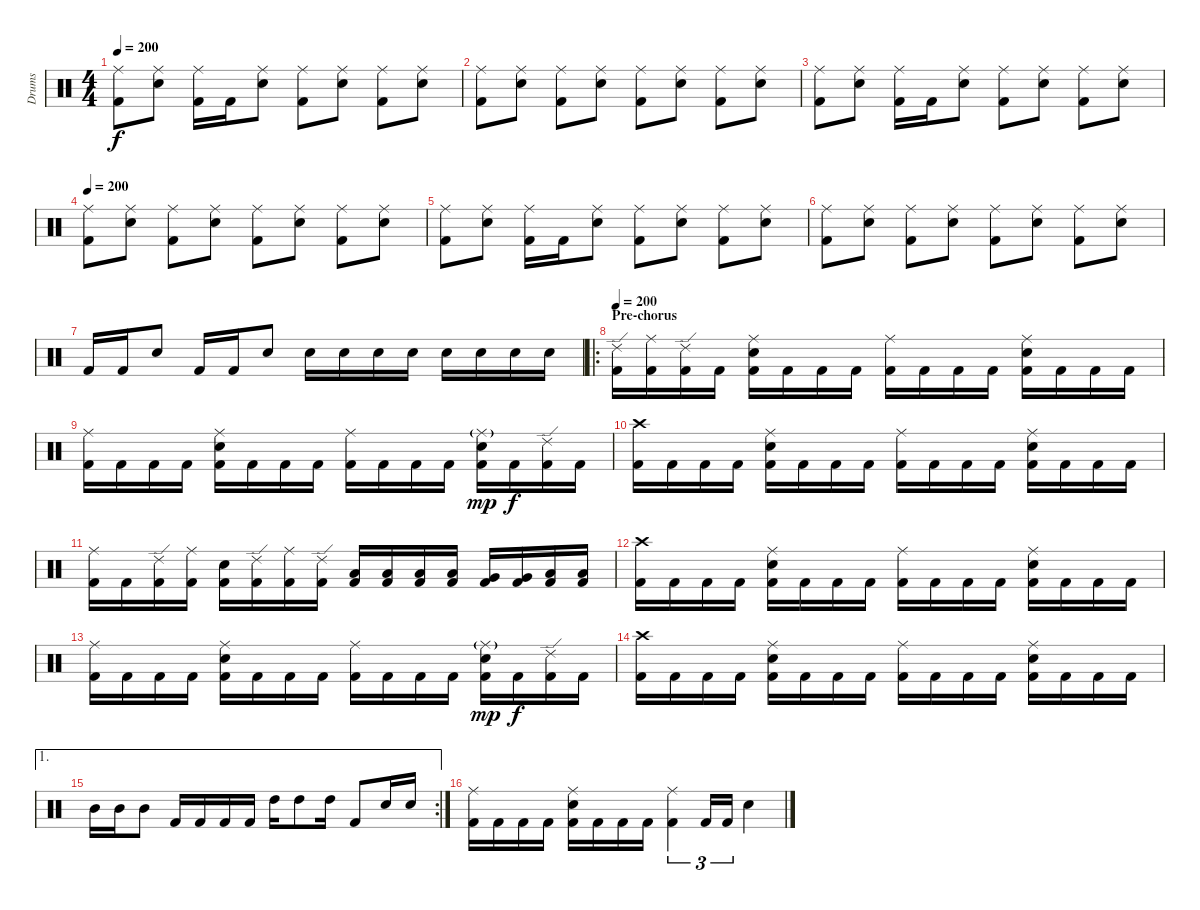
\track ("Drums" "Drums") {instrument percussion}
\staff {score}
\articulation defaults
\ts (4 4)
\tempo 200
\clef neutral
\ks c
("Ride (middle)" "Kick (hit) 2").8{dy f} ("Ride (middle)" "Electric Snare (hit)").8 ("Ride (middle)" "Kick (hit) 2").16 "Kick (hit) 2".16 ("Ride (middle)" "Electric Snare (hit)").8 ("Ride (middle)" "Kick (hit) 2").8 ("Ride (middle)" "Electric Snare (hit)").8 ("Ride (middle)" "Kick (hit) 2").8 ("Ride (middle)" "Electric Snare (hit)").8 |
("Ride (middle)" "Kick (hit) 2").8 ("Ride (middle)" "Electric Snare (hit)").8 ("Ride (middle)" "Kick (hit) 2").8 ("Ride (middle)" "Electric Snare (hit)").8 ("Ride (middle)" "Kick (hit) 2").8 ("Ride (middle)" "Electric Snare (hit)").8 ("Ride (middle)" "Kick (hit) 2").8 ("Ride (middle)" "Electric Snare (hit)").8 |
("Ride (middle)" "Kick (hit) 2").8 ("Ride (middle)" "Electric Snare (hit)").8 ("Ride (middle)" "Kick (hit) 2").16 "Kick (hit) 2".16 ("Ride (middle)" "Electric Snare (hit)").8 ("Ride (middle)" "Kick (hit) 2").8 ("Ride (middle)" "Electric Snare (hit)").8 ("Ride (middle)" "Kick (hit) 2").8 ("Ride (middle)" "Electric Snare (hit)").8 |
\tempo 200
("Ride (middle)" "Kick (hit) 2").8 ("Ride (middle)" "Electric Snare (hit)").8 ("Ride (middle)" "Kick (hit) 2").8 ("Ride (middle)" "Electric Snare (hit)").8 ("Ride (middle)" "Kick (hit) 2").8 ("Ride (middle)" "Electric Snare (hit)").8 ("Ride (middle)" "Kick (hit) 2").8 ("Ride (middle)" "Electric Snare (hit)").8 |
("Ride (middle)" "Kick (hit) 2").8 ("Ride (middle)" "Electric Snare (hit)").8 ("Ride (middle)" "Kick (hit) 2").16 "Kick (hit) 2".16 ("Ride (middle)" "Electric Snare (hit)").8 ("Ride (middle)" "Kick (hit) 2").8 ("Ride (middle)" "Electric Snare (hit)").8 ("Ride (middle)" "Kick (hit) 2").8 ("Ride (middle)" "Electric Snare (hit)").8 |
("Ride (middle)" "Kick (hit) 2").8 ("Ride (middle)" "Electric Snare (hit)").8 ("Ride (middle)" "Kick (hit) 2").8 ("Ride (middle)" "Electric Snare (hit)").8 ("Ride (middle)" "Kick (hit) 2").8 ("Ride (middle)" "Electric Snare (hit)").8 ("Ride (middle)" "Kick (hit) 2").8 ("Ride (middle)" "Electric Snare (hit)").8 |
"Kick (hit) 2".16 "Kick (hit) 2".16 "Electric Snare (hit)".8 "Kick (hit) 2".16 "Kick (hit) 2".16 "Electric Snare (hit)".8 "Electric Snare (hit)".16 "Electric Snare (hit)".16 "Electric Snare (hit)".16 "Electric Snare (hit)".16 "Electric Snare (hit)".16 "Electric Snare (hit)".16 "Electric Snare (hit)".16 "Electric Snare (hit)".16 |
\ro
\section ("" "Pre-chorus")
\tempo 200
("Ride (edge) 2" "Kick (hit) 2").16 ("Ride (middle)" "Kick (hit) 2").16 ("Ride (edge) 2" "Kick (hit) 2").16 "Kick (hit) 2".16 ("Ride (middle)" "Electric Snare (hit)" "Kick (hit) 2").16 "Kick (hit) 2".16 "Kick (hit) 2".16 "Kick (hit) 2".16 ("Ride (middle)" "Kick (hit) 2").16 "Kick (hit) 2".16 "Kick (hit) 2".16 "Kick (hit) 2".16 ("Ride (middle)" "Electric Snare (hit)" "Kick (hit) 2").16 "Kick (hit) 2".16 "Kick (hit) 2".16 "Kick (hit) 2".16 |
("Ride (middle)" "Kick (hit) 2").16 "Kick (hit) 2".16 "Kick (hit) 2".16 "Kick (hit) 2".16 ("Ride (middle)" "Electric Snare (hit)" "Kick (hit) 2").16 "Kick (hit) 2".16 "Kick (hit) 2".16 "Kick (hit) 2".16 ("Ride (middle)" "Kick (hit) 2").16 "Kick (hit) 2".16 "Kick (hit) 2".16 "Kick (hit) 2".16 ("Ride (middle)"{g} "Electric Snare (hit)" "Kick (hit) 2").16{dy mp} "Kick (hit) 2".16{dy f} ("Ride (edge) 2" "Kick (hit) 2").16 "Kick (hit) 2".16 |
("Crash high (hit)" "Kick (hit) 2").16 "Kick (hit) 2".16 "Kick (hit) 2".16 "Kick (hit) 2".16 ("Ride (middle)" "Electric Snare (hit)" "Kick (hit) 2").16 "Kick (hit) 2".16 "Kick (hit) 2".16 "Kick (hit) 2".16 ("Ride (middle)" "Kick (hit) 2").16 "Kick (hit) 2".16 "Kick (hit) 2".16 "Kick (hit) 2".16 ("Ride (middle)" "Electric Snare (hit)" "Kick (hit) 2").16 "Kick (hit) 2".16 "Kick (hit) 2".16 "Kick (hit) 2".16 |
("Ride (middle)" "Kick (hit) 2").16 "Kick (hit) 2".16 ("Ride (edge) 2" "Kick (hit) 2").16 ("Ride (middle)" "Kick (hit) 2").16 ("Electric Snare (hit)" "Kick (hit) 2").16 ("Ride (edge) 2" "Kick (hit) 2").16 ("Ride (middle)" "Kick (hit) 2").16 ("Ride (edge) 2" "Kick (hit) 2").16 ("Low Tom (hit)" "Kick (hit) 2").16 ("Low Tom (hit)" "Kick (hit) 2").16 ("Low Tom (hit)" "Kick (hit) 2").16 ("Low Tom (hit)" "Kick (hit) 2").16 ("Very Low Tom (hit)" "Kick (hit) 2").16 ("Very Low Tom (hit)" "Kick (hit) 2").16 ("Low Floor Tom (hit)" "Kick (hit) 2").16 ("Low Floor Tom (hit)" "Kick (hit) 2").16 |
("Crash high (hit)" "Kick (hit) 2").16 "Kick (hit) 2".16 "Kick (hit) 2".16 "Kick (hit) 2".16 ("Ride (middle)" "Electric Snare (hit)" "Kick (hit) 2").16 "Kick (hit) 2".16 "Kick (hit) 2".16 "Kick (hit) 2".16 ("Ride (middle)" "Kick (hit) 2").16 "Kick (hit) 2".16 "Kick (hit) 2".16 "Kick (hit) 2".16 ("Ride (middle)" "Electric Snare (hit)" "Kick (hit) 2").16 "Kick (hit) 2".16 "Kick (hit) 2".16 "Kick (hit) 2".16 |
("Ride (middle)" "Kick (hit) 2").16 "Kick (hit) 2".16 "Kick (hit) 2".16 "Kick (hit) 2".16 ("Ride (middle)" "Electric Snare (hit)" "Kick (hit) 2").16 "Kick (hit) 2".16 "Kick (hit) 2".16 "Kick (hit) 2".16 ("Ride (middle)" "Kick (hit) 2").16 "Kick (hit) 2".16 "Kick (hit) 2".16 "Kick (hit) 2".16 ("Ride (middle)"{g} "Electric Snare (hit)" "Kick (hit) 2").16{dy mp} "Kick (hit) 2".16{dy f} ("Ride (edge) 2" "Kick (hit) 2").16 "Kick (hit) 2".16 |
("Crash high (hit)" "Kick (hit) 2").16 "Kick (hit) 2".16 "Kick (hit) 2".16 "Kick (hit) 2".16 ("Ride (middle)" "Electric Snare (hit)" "Kick (hit) 2").16 "Kick (hit) 2".16 "Kick (hit) 2".16 "Kick (hit) 2".16 ("Ride (middle)" "Kick (hit) 2").16 "Kick (hit) 2".16 "Kick (hit) 2".16 "Kick (hit) 2".16 ("Ride (middle)" "Electric Snare (hit)" "Kick (hit) 2").16 "Kick (hit) 2".16 "Kick (hit) 2".16 "Kick (hit) 2".16 |
\ae 1
\rc 2 "Mid Tom (hit)".16 "Mid Tom (hit)".16 "Mid Tom (hit)".8 "Kick (hit) 2".16 "Kick (hit) 2".16 "Kick (hit) 2".16 "Kick (hit) 2".16 "High Tom (hit)".16 "High Tom (hit)".8 "High Tom (hit)".16 "Kick (hit) 2".8 "Electric Snare (hit)".16 "Electric Snare (hit)".16
|
("Ride (middle)" "Kick (hit) 2").16 "Kick (hit) 2".16 "Kick (hit) 2".16 "Kick (hit) 2".16 ("Ride (middle)" "Electric Snare (hit)" "Kick (hit) 2").16 "Kick (hit) 2".16 "Kick (hit) 2".16 "Kick (hit) 2".16 ("Ride (middle)" "Kick (hit) 2").4{tu (3 2)} "Kick (hit) 2".16{tu (3 2)} "Kick (hit) 2".16{tu (3 2)} "Electric Snare (hit)".4
